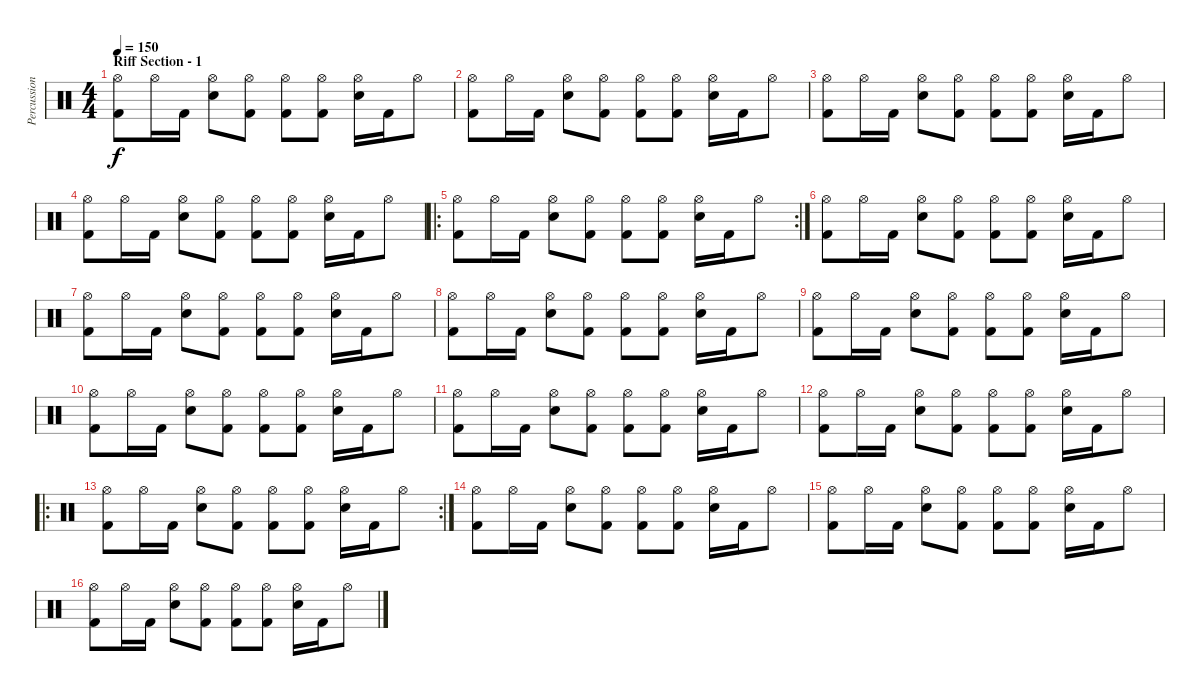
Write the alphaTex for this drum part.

\track ("Percussion" "Percussion") {instrument percussion}
\staff {score}
\articulation defaults
\ts (4 4)
\section ("" "Riff Section - 1")
\tempo 150
\clef neutral
\ks c
("Hi-Hat (open)" "Kick (hit) 2").8{dy f} "Hi-Hat (open)".16 "Kick (hit) 2".16 ("Hi-Hat (open)" "Snare (hit) 2").8 ("Hi-Hat (open)" "Kick (hit) 2").8 ("Hi-Hat (open)" "Kick (hit) 2").8 ("Hi-Hat (open)" "Kick (hit) 2").8 ("Hi-Hat (open)" "Snare (hit) 2").16 "Kick (hit) 2".16 "Hi-Hat (open)".8 |
("Hi-Hat (open)" "Kick (hit) 2").8 "Hi-Hat (open)".16 "Kick (hit) 2".16 ("Hi-Hat (open)" "Snare (hit) 2").8 ("Hi-Hat (open)" "Kick (hit) 2").8 ("Hi-Hat (open)" "Kick (hit) 2").8 ("Hi-Hat (open)" "Kick (hit) 2").8 ("Hi-Hat (open)" "Snare (hit) 2").16 "Kick (hit) 2".16 "Hi-Hat (open)".8 |
("Hi-Hat (open)" "Kick (hit) 2").8 "Hi-Hat (open)".16 "Kick (hit) 2".16 ("Hi-Hat (open)" "Snare (hit) 2").8 ("Hi-Hat (open)" "Kick (hit) 2").8 ("Hi-Hat (open)" "Kick (hit) 2").8 ("Hi-Hat (open)" "Kick (hit) 2").8 ("Hi-Hat (open)" "Snare (hit) 2").16 "Kick (hit) 2".16 "Hi-Hat (open)".8 |
("Hi-Hat (open)" "Kick (hit) 2").8 "Hi-Hat (open)".16 "Kick (hit) 2".16 ("Hi-Hat (open)" "Snare (hit) 2").8 ("Hi-Hat (open)" "Kick (hit) 2").8 ("Hi-Hat (open)" "Kick (hit) 2").8 ("Hi-Hat (open)" "Kick (hit) 2").8 ("Hi-Hat (open)" "Snare (hit) 2").16 "Kick (hit) 2".16 "Hi-Hat (open)".8 |
\ro
\rc 2
("Hi-Hat (open)" "Kick (hit) 2").8 "Hi-Hat (open)".16 "Kick (hit) 2".16 ("Hi-Hat (open)" "Snare (hit) 2").8 ("Hi-Hat (open)" "Kick (hit) 2").8 ("Hi-Hat (open)" "Kick (hit) 2").8 ("Hi-Hat (open)" "Kick (hit) 2").8 ("Hi-Hat (open)" "Snare (hit) 2").16 "Kick (hit) 2".16 "Hi-Hat (open)".8 |
("Hi-Hat (open)" "Kick (hit) 2").8 "Hi-Hat (open)".16 "Kick (hit) 2".16 ("Hi-Hat (open)" "Snare (hit) 2").8 ("Hi-Hat (open)" "Kick (hit) 2").8 ("Hi-Hat (open)" "Kick (hit) 2").8 ("Hi-Hat (open)" "Kick (hit) 2").8 ("Hi-Hat (open)" "Snare (hit) 2").16 "Kick (hit) 2".16 "Hi-Hat (open)".8 |
("Hi-Hat (open)" "Kick (hit) 2").8 "Hi-Hat (open)".16 "Kick (hit) 2".16 ("Hi-Hat (open)" "Snare (hit) 2").8 ("Hi-Hat (open)" "Kick (hit) 2").8 ("Hi-Hat (open)" "Kick (hit) 2").8 ("Hi-Hat (open)" "Kick (hit) 2").8 ("Hi-Hat (open)" "Snare (hit) 2").16 "Kick (hit) 2".16 "Hi-Hat (open)".8 |
("Hi-Hat (open)" "Kick (hit) 2").8 "Hi-Hat (open)".16 "Kick (hit) 2".16 ("Hi-Hat (open)" "Snare (hit) 2").8 ("Hi-Hat (open)" "Kick (hit) 2").8 ("Hi-Hat (open)" "Kick (hit) 2").8 ("Hi-Hat (open)" "Kick (hit) 2").8 ("Hi-Hat (open)" "Snare (hit) 2").16 "Kick (hit) 2".16 "Hi-Hat (open)".8 |
("Hi-Hat (open)" "Kick (hit) 2").8 "Hi-Hat (open)".16 "Kick (hit) 2".16 ("Hi-Hat (open)" "Snare (hit) 2").8 ("Hi-Hat (open)" "Kick (hit) 2").8 ("Hi-Hat (open)" "Kick (hit) 2").8 ("Hi-Hat (open)" "Kick (hit) 2").8 ("Hi-Hat (open)" "Snare (hit) 2").16 "Kick (hit) 2".16 "Hi-Hat (open)".8 |
("Hi-Hat (open)" "Kick (hit) 2").8 "Hi-Hat (open)".16 "Kick (hit) 2".16 ("Hi-Hat (open)" "Snare (hit) 2").8 ("Hi-Hat (open)" "Kick (hit) 2").8 ("Hi-Hat (open)" "Kick (hit) 2").8 ("Hi-Hat (open)" "Kick (hit) 2").8 ("Hi-Hat (open)" "Snare (hit) 2").16 "Kick (hit) 2".16 "Hi-Hat (open)".8 |
("Hi-Hat (open)" "Kick (hit) 2").8 "Hi-Hat (open)".16 "Kick (hit) 2".16 ("Hi-Hat (open)" "Snare (hit) 2").8 ("Hi-Hat (open)" "Kick (hit) 2").8 ("Hi-Hat (open)" "Kick (hit) 2").8 ("Hi-Hat (open)" "Kick (hit) 2").8 ("Hi-Hat (open)" "Snare (hit) 2").16 "Kick (hit) 2".16 "Hi-Hat (open)".8 |
("Hi-Hat (open)" "Kick (hit) 2").8 "Hi-Hat (open)".16 "Kick (hit) 2".16 ("Hi-Hat (open)" "Snare (hit) 2").8 ("Hi-Hat (open)" "Kick (hit) 2").8 ("Hi-Hat (open)" "Kick (hit) 2").8 ("Hi-Hat (open)" "Kick (hit) 2").8 ("Hi-Hat (open)" "Snare (hit) 2").16 "Kick (hit) 2".16 "Hi-Hat (open)".8 |
\ro
\rc 2
("Hi-Hat (open)" "Kick (hit) 2").8 "Hi-Hat (open)".16 "Kick (hit) 2".16 ("Hi-Hat (open)" "Snare (hit) 2").8 ("Hi-Hat (open)" "Kick (hit) 2").8 ("Hi-Hat (open)" "Kick (hit) 2").8 ("Hi-Hat (open)" "Kick (hit) 2").8 ("Hi-Hat (open)" "Snare (hit) 2").16 "Kick (hit) 2".16 "Hi-Hat (open)".8 |
("Hi-Hat (open)" "Kick (hit) 2").8 "Hi-Hat (open)".16 "Kick (hit) 2".16 ("Hi-Hat (open)" "Snare (hit) 2").8 ("Hi-Hat (open)" "Kick (hit) 2").8 ("Hi-Hat (open)" "Kick (hit) 2").8 ("Hi-Hat (open)" "Kick (hit) 2").8 ("Hi-Hat (open)" "Snare (hit) 2").16 "Kick (hit) 2".16 "Hi-Hat (open)".8 |
("Hi-Hat (open)" "Kick (hit) 2").8 "Hi-Hat (open)".16 "Kick (hit) 2".16 ("Hi-Hat (open)" "Snare (hit) 2").8 ("Hi-Hat (open)" "Kick (hit) 2").8 ("Hi-Hat (open)" "Kick (hit) 2").8 ("Hi-Hat (open)" "Kick (hit) 2").8 ("Hi-Hat (open)" "Snare (hit) 2").16 "Kick (hit) 2".16 "Hi-Hat (open)".8 |
("Hi-Hat (open)" "Kick (hit) 2").8 "Hi-Hat (open)".16 "Kick (hit) 2".16 ("Hi-Hat (open)" "Snare (hit) 2").8 ("Hi-Hat (open)" "Kick (hit) 2").8 ("Hi-Hat (open)" "Kick (hit) 2").8 ("Hi-Hat (open)" "Kick (hit) 2").8 ("Hi-Hat (open)" "Snare (hit) 2").16 "Kick (hit) 2".16 "Hi-Hat (open)".8
